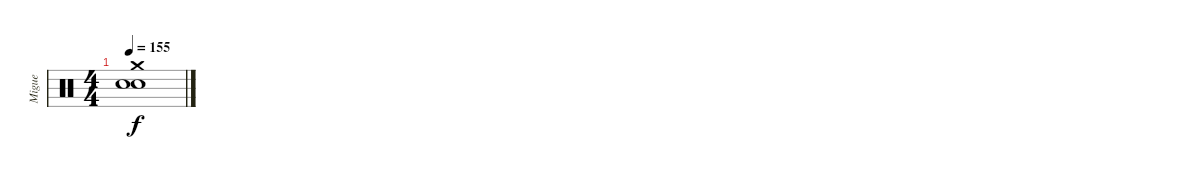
\track ("Migue" "Migue") {instrument percussion}
\staff {score}
\articulation defaults
\ts (4 4)
\tempo 155
\clef neutral
\ks c
("Crash medium (hit)" "Snare (hit) 2" "Snare (hit) 2").1{dy f}
